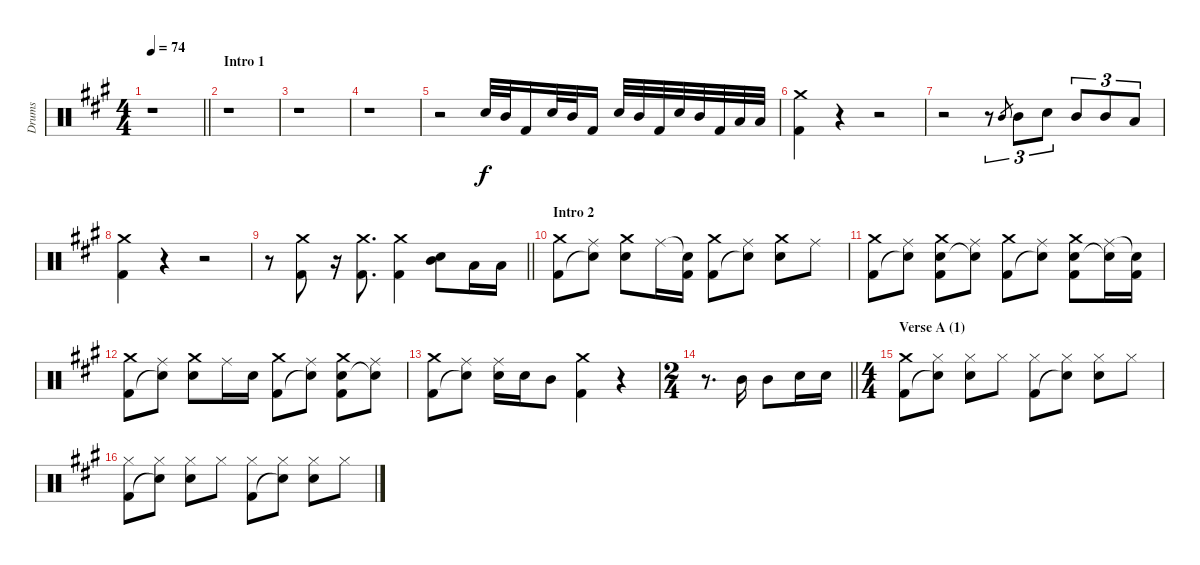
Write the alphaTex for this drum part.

\track ("Drums" "Drums") {instrument percussion}
\staff {score}
\articulation defaults
\ts (4 4)
\tempo 74
\clef neutral
\barLineRight lightlight
\ks f#minor
r.1{dy f} |
\section ("" "Intro 1")
r.1 |
r.1 |
r.1 |
r.2 "Electric Snare (hit)".32 "Mid Tom (hit)".32 "Kick (hit) 2".16 "Electric Snare (hit)".32 "Mid Tom (hit)".32 "Kick (hit) 2".16 "Electric Snare (hit)".32 "Mid Tom (hit)".32 "Kick (hit) 2".32 "Electric Snare (hit)".32 "Mid Tom (hit)".32 "Kick (hit) 2".32 "Low Floor Tom (hit)".32 "Low Floor Tom (hit)".32 |
("Crash medium (hit)" "Kick (hit) 2").4 r.4 r.2 |
r.2 r.8{tu (3 2)} "Mid Tom (hit)".8{gr} "Mid Tom (hit)".8{tu (3 2)} "Electric Snare (hit)".8{tu (3 2)} "Mid Tom (hit)".8{tu (3 2)} "Mid Tom (hit)".8{tu (3 2)} "Low Floor Tom (hit)".8{tu (3 2)} |
("Crash medium (hit)" "Kick (hit) 2").4 r.4 r.2 |
\barLineRight lightlight
r.8 ("Crash medium (hit)" "Kick (hit) 2").8 r.16 ("Crash medium (hit)" "Kick (hit) 2").8{d} ("Crash medium (hit)" "Kick (hit) 2").4 ("Electric Snare (hit)" "Mid Tom (hit)").8 "Low Floor Tom (hit)".16 "Low Floor Tom (hit)".16 |
\section ("" "Intro 2")
("Crash medium (hit)" "Kick (hit) 2").8 ("Ride (middle)" "Snare (hit)"{t}).8 ("Crash medium (hit)" "Electric Snare (hit)").8 "Ride (middle)".16 ("Snare (hit)"{t} "Kick (hit) 2").16 ("Crash medium (hit)" "Kick (hit) 2").8 ("Ride (middle)" "Snare (hit)"{t}).8 ("Crash medium (hit)" "Electric Snare (hit)").8 "Ride (middle)".8 |
("Crash medium (hit)" "Kick (hit) 2").8 ("Ride (middle)" "Snare (hit)"{t}).8 ("Crash medium (hit)" "Electric Snare (hit)" "Kick (hit) 2").8 ("Ride (middle)" "Snare (hit)"{t}).8 ("Crash medium (hit)" "Kick (hit) 2").8 ("Ride (middle)" "Snare (hit)"{t}).8 ("Crash medium (hit)" "Electric Snare (hit)" "Kick (hit) 2").8 ("Ride (middle)" "Snare (hit)"{t}).16 ("Snare (hit)"{t} "Kick (hit) 2").16 |
("Crash medium (hit)" "Kick (hit) 2").8 ("Ride (middle)" "Snare (hit)"{t}).8 ("Crash medium (hit)" "Electric Snare (hit)").8 "Ride (middle)".16 "Electric Snare (hit)".16 ("Crash medium (hit)" "Kick (hit) 2").8 ("Ride (middle)" "Snare (hit)"{t}).8 ("Crash medium (hit)" "Electric Snare (hit)" "Kick (hit) 2").8 ("Ride (middle)" "Snare (hit)"{t}).8 |
("Crash medium (hit)" "Kick (hit) 2").8 ("Ride (middle)" "Snare (hit)"{t}).8 ("Ride (middle)" "Electric Snare (hit)").16 "Electric Snare (hit)".16 "Mid Tom (hit)".8 ("Crash medium (hit)" "Kick (hit) 2").4 r.4 |
\ts (2 4)
\barLineRight lightlight
r.8{d} "Mid Tom (hit)".16 "Mid Tom (hit)".8 "Electric Snare (hit)".16 "Electric Snare (hit)".16 |
\ts (4 4)
\section ("" "Verse A (1)")
("Crash medium (hit)" "Kick (hit) 2").8 ("Hi-Hat (closed)" "Snare (hit)"{t}).8 ("Hi-Hat (closed)" "Electric Snare (hit)").8 "Hi-Hat (closed)".8 ("Hi-Hat (closed)" "Kick (hit) 2").8 ("Hi-Hat (closed)" "Snare (hit)"{t}).8 ("Hi-Hat (closed)" "Electric Snare (hit)").8 "Hi-Hat (closed)".8 |
("Hi-Hat (closed)" "Kick (hit) 2").8 ("Hi-Hat (closed)" "Snare (hit)"{t}).8 ("Hi-Hat (closed)" "Electric Snare (hit)").8 "Hi-Hat (closed)".8 ("Hi-Hat (closed)" "Kick (hit) 2").8 ("Hi-Hat (closed)" "Snare (hit)"{t}).8 ("Hi-Hat (closed)" "Electric Snare (hit)").8 "Hi-Hat (closed)".8
